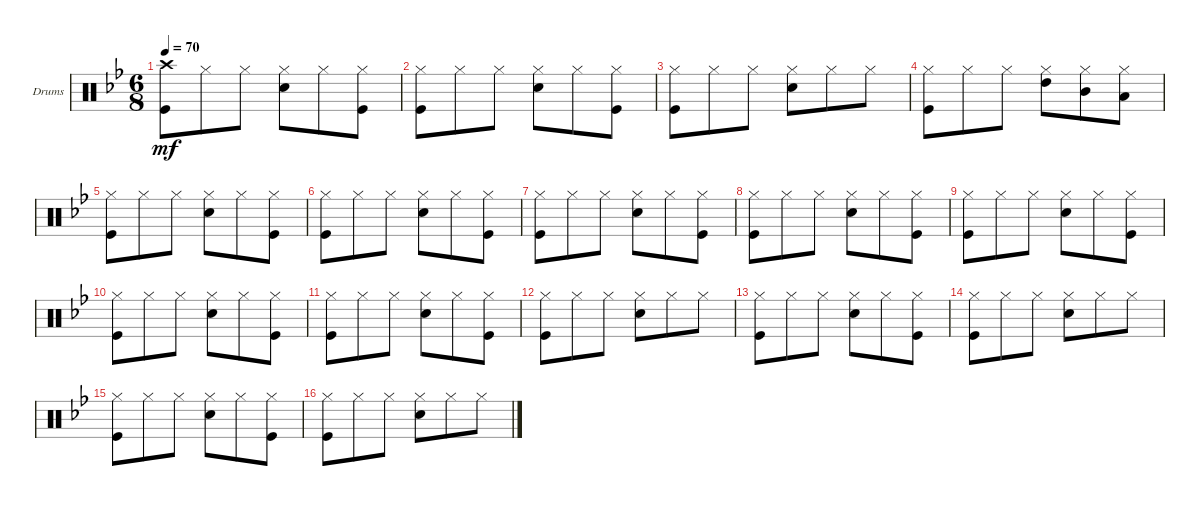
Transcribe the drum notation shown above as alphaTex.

\defaultSystemsLayout 4
\bracketExtendMode groupsimilarinstruments
\firstSystemTrackNameOrientation horizontal
\otherSystemsTrackNameOrientation horizontal
\track ("Drumkit" "Drums") {instrument percussion}
\staff {score}
\articulation defaults
\ts (6 8)
\tempo 70
\clef neutral
\ks gminor
("Kick (hit)" "Crash high (hit)").8{dy mf} "Hi-Hat (closed)".8 "Hi-Hat (closed)".8 ("Hi-Hat (closed)" "Snare (hit) 2").8 "Hi-Hat (closed)".8 ("Hi-Hat (closed)" "Kick (hit)").8 |
("Hi-Hat (closed)" "Kick (hit)").8 "Hi-Hat (closed)".8 "Hi-Hat (closed)".8 ("Hi-Hat (closed)" "Snare (hit) 2").8 "Hi-Hat (closed)".8 ("Hi-Hat (closed)" "Kick (hit)").8 |
("Hi-Hat (closed)" "Kick (hit)").8 "Hi-Hat (closed)".8 "Hi-Hat (closed)".8 ("Hi-Hat (closed)" "Snare (hit) 2").8 "Hi-Hat (closed)".8 "Hi-Hat (closed)".8 |
("Hi-Hat (closed)" "Kick (hit)").8 "Hi-Hat (closed)".8 "Hi-Hat (closed)".8 ("Hi-Hat (closed)" "High Tom (hit)").8 ("Hi-Hat (closed)" "Mid Tom (hit)").8 ("Hi-Hat (closed)" "Low Tom (hit)").8 |
\scale
0.333333 ("Hi-Hat (closed)" "Kick (hit)").8 "Hi-Hat (closed)".8 "Hi-Hat (closed)".8 ("Hi-Hat (closed)" "Snare (hit) 2").8 "Hi-Hat (closed)".8 ("Hi-Hat (closed)" "Kick (hit)").8 |
\scale
0.333333 ("Hi-Hat (closed)" "Kick (hit)").8 "Hi-Hat (closed)".8 "Hi-Hat (closed)".8 ("Hi-Hat (closed)" "Snare (hit) 2").8 "Hi-Hat (closed)".8 ("Hi-Hat (closed)" "Kick (hit)").8 |
\scale
0.333333 ("Hi-Hat (closed)" "Kick (hit)").8 "Hi-Hat (closed)".8 "Hi-Hat (closed)".8 ("Hi-Hat (closed)" "Snare (hit) 2").8 "Hi-Hat (closed)".8 ("Hi-Hat (closed)" "Kick (hit)").8 |
\scale
0.333333 ("Hi-Hat (closed)" "Kick (hit)").8 "Hi-Hat (closed)".8 "Hi-Hat (closed)".8 ("Hi-Hat (closed)" "Snare (hit) 2").8 "Hi-Hat (closed)".8 ("Hi-Hat (closed)" "Kick (hit)").8 |
\scale
0.333333 ("Hi-Hat (closed)" "Kick (hit)").8 "Hi-Hat (closed)".8 "Hi-Hat (closed)".8 ("Hi-Hat (closed)" "Snare (hit) 2").8 "Hi-Hat (closed)".8 ("Hi-Hat (closed)" "Kick (hit)").8 |
\scale
0.333333 ("Hi-Hat (closed)" "Kick (hit)").8 "Hi-Hat (closed)".8 "Hi-Hat (closed)".8 ("Hi-Hat (closed)" "Snare (hit) 2").8 "Hi-Hat (closed)".8 ("Hi-Hat (closed)" "Kick (hit)").8 |
\scale
0.333333 ("Hi-Hat (closed)" "Kick (hit)").8 "Hi-Hat (closed)".8 "Hi-Hat (closed)".8 ("Hi-Hat (closed)" "Snare (hit) 2").8 "Hi-Hat (closed)".8 ("Hi-Hat (closed)" "Kick (hit)").8 |
\scale
0.333333 ("Hi-Hat (closed)" "Kick (hit)").8 "Hi-Hat (closed)".8 "Hi-Hat (closed)".8 ("Hi-Hat (closed)" "Snare (hit) 2").8 "Hi-Hat (closed)".8 "Hi-Hat (closed)".8 |
\scale
0.333333 ("Hi-Hat (closed)" "Kick (hit)").8 "Hi-Hat (closed)".8 "Hi-Hat (closed)".8 ("Hi-Hat (closed)" "Snare (hit) 2").8 "Hi-Hat (closed)".8 ("Hi-Hat (closed)" "Kick (hit)").8 |
\scale
0.333333 ("Hi-Hat (closed)" "Kick (hit)").8 "Hi-Hat (closed)".8 "Hi-Hat (closed)".8 ("Hi-Hat (closed)" "Snare (hit) 2").8 "Hi-Hat (closed)".8 "Hi-Hat (closed)".8 |
\scale
0.333333 ("Hi-Hat (closed)" "Kick (hit)").8 "Hi-Hat (closed)".8 "Hi-Hat (closed)".8 ("Hi-Hat (closed)" "Snare (hit) 2").8 "Hi-Hat (closed)".8 ("Hi-Hat (closed)" "Kick (hit)").8 |
\scale
0.333333 ("Hi-Hat (closed)" "Kick (hit)").8 "Hi-Hat (closed)".8 "Hi-Hat (closed)".8 ("Hi-Hat (closed)" "Snare (hit) 2").8 "Hi-Hat (closed)".8 "Hi-Hat (closed)".8
